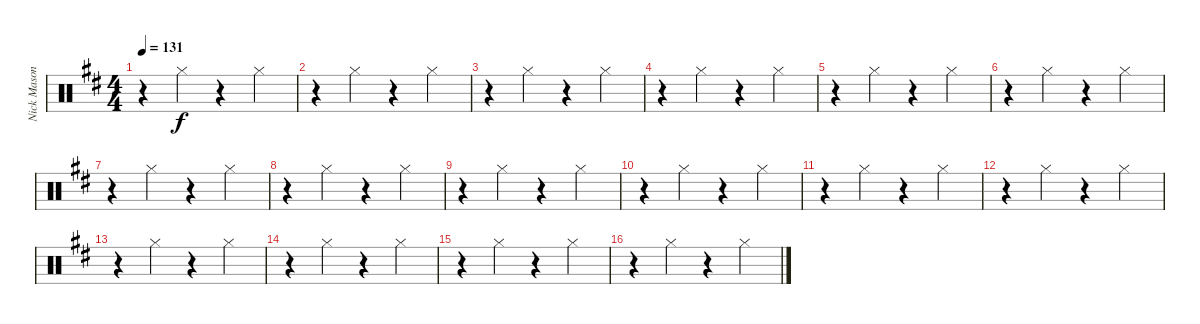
\track ("Nick Mason" "Nick Mason") {instrument percussion}
\staff {score}
\articulation defaults
\ts (4 4)
\tempo 131
\clef neutral
\ks d
r.4{dy f} "Hi-Hat (closed)".4 r.4 "Hi-Hat (closed)".4 |
r.4 "Hi-Hat (closed)".4 r.4 "Hi-Hat (closed)".4 |
r.4 "Hi-Hat (closed)".4 r.4 "Hi-Hat (closed)".4 |
r.4 "Hi-Hat (closed)".4 r.4 "Hi-Hat (closed)".4 |
r.4 "Hi-Hat (closed)".4 r.4 "Hi-Hat (closed)".4 |
r.4 "Hi-Hat (closed)".4 r.4 "Hi-Hat (closed)".4 |
r.4 "Hi-Hat (closed)".4 r.4 "Hi-Hat (closed)".4 |
r.4 "Hi-Hat (closed)".4 r.4 "Hi-Hat (closed)".4 |
r.4 "Hi-Hat (closed)".4 r.4 "Hi-Hat (closed)".4 |
r.4 "Hi-Hat (closed)".4 r.4 "Hi-Hat (closed)".4 |
r.4 "Hi-Hat (closed)".4 r.4 "Hi-Hat (closed)".4 |
r.4 "Hi-Hat (closed)".4 r.4 "Hi-Hat (closed)".4 |
r.4 "Hi-Hat (closed)".4 r.4 "Hi-Hat (closed)".4 |
r.4 "Hi-Hat (closed)".4 r.4 "Hi-Hat (closed)".4 |
r.4 "Hi-Hat (closed)".4 r.4 "Hi-Hat (closed)".4 |
r.4 "Hi-Hat (closed)".4 r.4 "Hi-Hat (closed)".4
